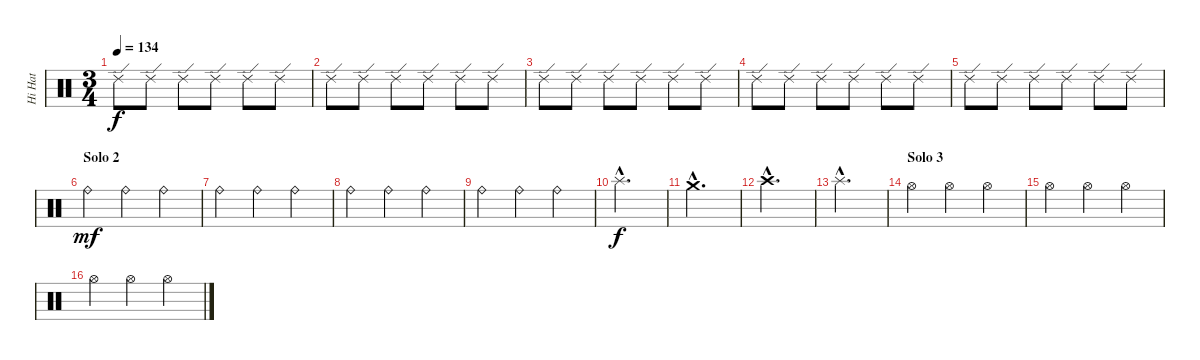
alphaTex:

\track ("Hi Hat" "Hi Hat") {instrument percussion}
\staff {score}
\articulation defaults
\ts (3 4)
\tempo 134
\clef neutral
\ks c "Ride (edge) 2".8{dy f} "Ride (edge) 2".8 "Ride (edge) 2".8 "Ride (edge) 2".8 "Ride (edge) 2".8 "Ride (edge) 2".8
|
"Ride (edge) 2".8 "Ride (edge) 2".8 "Ride (edge) 2".8 "Ride (edge) 2".8 "Ride (edge) 2".8 "Ride (edge) 2".8 |
"Ride (edge) 2".8 "Ride (edge) 2".8 "Ride (edge) 2".8 "Ride (edge) 2".8 "Ride (edge) 2".8 "Ride (edge) 2".8 |
"Ride (edge) 2".8 "Ride (edge) 2".8 "Ride (edge) 2".8 "Ride (edge) 2".8 "Ride (edge) 2".8 "Ride (edge) 2".8 |
"Ride (edge) 2".8 "Ride (edge) 2".8 "Ride (edge) 2".8 "Ride (edge) 2".8 "Ride (edge) 2".8 "Ride (edge) 2".8 |
\section ("" "Solo 2")
"Ride (bell)".4{dy mf} "Ride (bell)".4 "Ride (bell)".4 |
"Ride (bell)".4 "Ride (bell)".4 "Ride (bell)".4 |
"Ride (bell)".4 "Ride (bell)".4 "Ride (bell)".4 |
"Ride (bell)".4 "Ride (bell)".4 "Ride (bell)".4 |
"Splash (hit)"{hac}.2{d dy f} |
"Crash medium (hit)"{hac}.2{d} |
"Crash high (hit)"{hac}.2{d} |
"Splash (hit)"{hac}.2{d} |
\section ("" "Solo 3")
"Hi-Hat (open)".4 "Hi-Hat (open)".4 "Hi-Hat (open)".4 |
"Hi-Hat (open)".4 "Hi-Hat (open)".4 "Hi-Hat (open)".4 |
"Hi-Hat (open)".4 "Hi-Hat (open)".4 "Hi-Hat (open)".4
